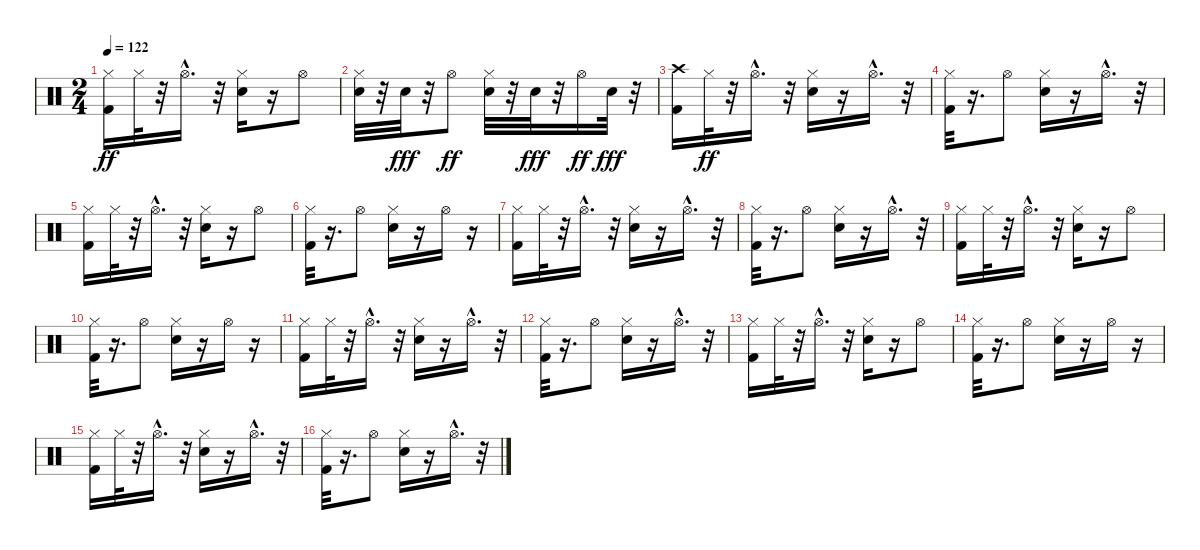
\track "" {instrument percussion}
\staff {score}
\articulation defaults
\ts (2 4)
\tempo 122
\clef neutral
\ks c
("Kick (hit) 2" "Hi-Hat (closed)").16{dy ff} "Hi-Hat (closed)".32 r.32 "Hi-Hat (open)"{hac}.16{d} r.32 ("Snare (hit) 2" "Hi-Hat (closed)").16 r.16 "Hi-Hat (open)".8 |
("Snare (hit) 2" "Hi-Hat (closed)").32 r.32 "Snare (hit) 2".32{dy fff} r.32 "Hi-Hat (open)".8{dy ff} ("Snare (hit) 2" "Hi-Hat (closed)").32 r.32 "Snare (hit) 2".32{dy fff} r.32 "Hi-Hat (open)".16{dy ff} "Snare (hit) 2".32{dy fff} r.32 |
("Kick (hit) 2" "Crash high (hit)").16 "Hi-Hat (closed)".32{dy ff} r.32 "Hi-Hat (open)"{hac}.16{d} r.32 ("Snare (hit) 2" "Hi-Hat (closed)").16 r.16 "Hi-Hat (open)"{hac}.16{d} r.32 |
("Kick (hit) 2" "Hi-Hat (closed)").32 r.16{d} "Hi-Hat (open)".8 ("Snare (hit) 2" "Hi-Hat (closed)").16 r.16 "Hi-Hat (open)"{hac}.16{d} r.32 |
("Kick (hit) 2" "Hi-Hat (closed)").16 "Hi-Hat (closed)".32 r.32 "Hi-Hat (open)"{hac}.16{d} r.32 ("Snare (hit) 2" "Hi-Hat (closed)").16 r.16 "Hi-Hat (open)".8 |
("Kick (hit) 2" "Hi-Hat (closed)").32 r.16{d} "Hi-Hat (open)".8 ("Snare (hit) 2" "Hi-Hat (closed)").16 r.16 "Hi-Hat (open)".16 r.16 |
("Kick (hit) 2" "Hi-Hat (closed)").16 "Hi-Hat (closed)".32 r.32 "Hi-Hat (open)"{hac}.16{d} r.32 ("Snare (hit) 2" "Hi-Hat (closed)").16 r.16 "Hi-Hat (open)"{hac}.16{d} r.32 |
("Kick (hit) 2" "Hi-Hat (closed)").32 r.16{d} "Hi-Hat (open)".8 ("Snare (hit) 2" "Hi-Hat (closed)").16 r.16 "Hi-Hat (open)"{hac}.16{d} r.32 |
("Kick (hit) 2" "Hi-Hat (closed)").16 "Hi-Hat (closed)".32 r.32 "Hi-Hat (open)"{hac}.16{d} r.32 ("Snare (hit) 2" "Hi-Hat (closed)").16 r.16 "Hi-Hat (open)".8 |
("Kick (hit) 2" "Hi-Hat (closed)").32 r.16{d} "Hi-Hat (open)".8 ("Snare (hit) 2" "Hi-Hat (closed)").16 r.16 "Hi-Hat (open)".16 r.16 |
("Kick (hit) 2" "Hi-Hat (closed)").16 "Hi-Hat (closed)".32 r.32 "Hi-Hat (open)"{hac}.16{d} r.32 ("Snare (hit) 2" "Hi-Hat (closed)").16 r.16 "Hi-Hat (open)"{hac}.16{d} r.32 |
("Kick (hit) 2" "Hi-Hat (closed)").32 r.16{d} "Hi-Hat (open)".8 ("Snare (hit) 2" "Hi-Hat (closed)").16 r.16 "Hi-Hat (open)"{hac}.16{d} r.32 |
("Kick (hit) 2" "Hi-Hat (closed)").16 "Hi-Hat (closed)".32 r.32 "Hi-Hat (open)"{hac}.16{d} r.32 ("Snare (hit) 2" "Hi-Hat (closed)").16 r.16 "Hi-Hat (open)".8 |
("Kick (hit) 2" "Hi-Hat (closed)").32 r.16{d} "Hi-Hat (open)".8 ("Snare (hit) 2" "Hi-Hat (closed)").16 r.16 "Hi-Hat (open)".16 r.16 |
("Kick (hit) 2" "Hi-Hat (closed)").16 "Hi-Hat (closed)".32 r.32 "Hi-Hat (open)"{hac}.16{d} r.32 ("Snare (hit) 2" "Hi-Hat (closed)").16 r.16 "Hi-Hat (open)"{hac}.16{d} r.32 |
("Kick (hit) 2" "Hi-Hat (closed)").32 r.16{d} "Hi-Hat (open)".8 ("Snare (hit) 2" "Hi-Hat (closed)").16 r.16 "Hi-Hat (open)"{hac}.16{d} r.32
